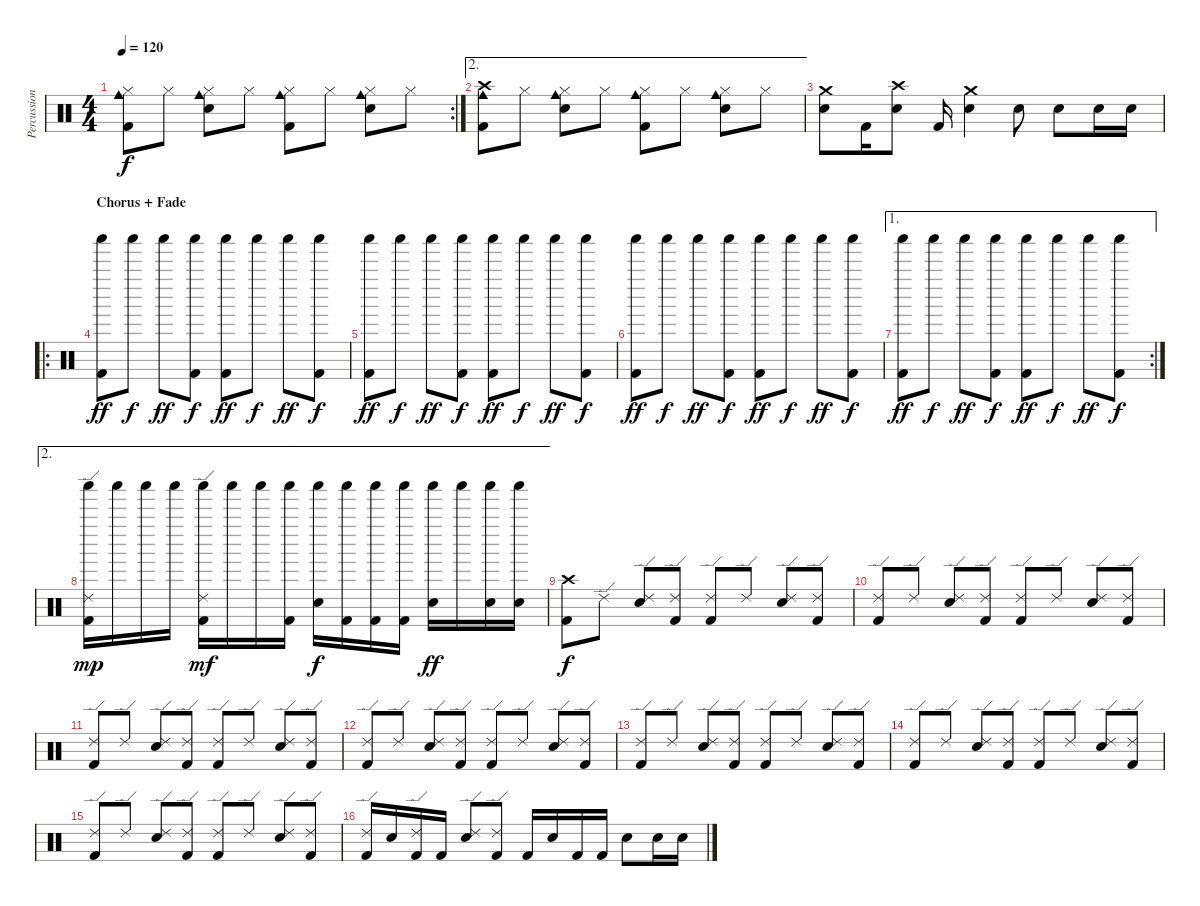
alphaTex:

\track ("Percussion" "Percussion") {instrument percussion}
\staff {score}
\articulation defaults
\rc 2
\ts (4 4)
\tempo 120
\clef neutral
\ks c
("Hi-Hat (closed)" "Cowbell medium (hit)" "Kick (hit) 2").8{dy f} "Hi-Hat (closed)".8 ("Hi-Hat (closed)" "Cowbell medium (hit)" "Snare (hit) 2").8 "Hi-Hat (closed)".8 ("Hi-Hat (closed)" "Cowbell medium (hit)" "Kick (hit) 2").8 "Hi-Hat (closed)".8 ("Hi-Hat (closed)" "Cowbell medium (hit)" "Snare (hit) 2").8 "Hi-Hat (closed)".8 |
\ae 2
("Crash high (hit)" "Cowbell medium (hit)" "Kick (hit) 2").8 "Hi-Hat (closed)".8 ("Hi-Hat (closed)" "Cowbell medium (hit)" "Snare (hit) 2").8 "Hi-Hat (closed)".8 ("Hi-Hat (closed)" "Cowbell medium (hit)" "Kick (hit) 2").8 "Hi-Hat (closed)".8 ("Hi-Hat (closed)" "Cowbell medium (hit)" "Snare (hit) 2").8 "Hi-Hat (closed)".8 |
("Crash medium (hit)" "Snare (hit) 2").8 "Kick (hit) 2".16 ("Crash high (hit)" "Snare (hit) 2").8 "Kick (hit) 2".16 ("Crash medium (hit)" "Snare (hit) 2").4 "Snare (hit) 2".8 "Snare (hit) 2".8 "Snare (hit) 2".16 "Snare (hit) 2".16 |
\ro
\section ("" "Chorus + Fade")
("Shaker (hit)" "Kick (hit) 2").8{dy ff} "Shaker (hit)".8{dy f} "Shaker (hit)".8{dy ff} ("Shaker (hit)" "Kick (hit) 2").8{dy f} ("Shaker (hit)" "Kick (hit) 2").8{dy ff} "Shaker (hit)".8{dy f} "Shaker (hit)".8{dy ff} ("Shaker (hit)" "Kick (hit) 2").8{dy f} |
("Shaker (hit)" "Kick (hit) 2").8{dy ff} "Shaker (hit)".8{dy f} "Shaker (hit)".8{dy ff} ("Shaker (hit)" "Kick (hit) 2").8{dy f} ("Shaker (hit)" "Kick (hit) 2").8{dy ff} "Shaker (hit)".8{dy f} "Shaker (hit)".8{dy ff} ("Shaker (hit)" "Kick (hit) 2").8{dy f} |
("Shaker (hit)" "Kick (hit) 2").8{dy ff} "Shaker (hit)".8{dy f} "Shaker (hit)".8{dy ff} ("Shaker (hit)" "Kick (hit) 2").8{dy f} ("Shaker (hit)" "Kick (hit) 2").8{dy ff} "Shaker (hit)".8{dy f} "Shaker (hit)".8{dy ff} ("Shaker (hit)" "Kick (hit) 2").8{dy f} |
\ae 1
\rc 2
("Shaker (hit)" "Kick (hit) 2").8{dy ff} "Shaker (hit)".8{dy f} "Shaker (hit)".8{dy ff} ("Shaker (hit)" "Kick (hit) 2").8{dy f} ("Shaker (hit)" "Kick (hit) 2").8{dy ff} "Shaker (hit)".8{dy f} "Shaker (hit)".8{dy ff} ("Shaker (hit)" "Kick (hit) 2").8{dy f} |
\ae 2
("Ride (edge) 2" "Shaker (hit)" "Kick (hit) 2").16{dy mp} "Shaker (hit)".16 "Shaker (hit)".16 "Shaker (hit)".16 ("Ride (edge) 2" "Shaker (hit)" "Kick (hit) 2").16{dy mf} "Shaker (hit)".16 "Shaker (hit)".16 ("Shaker (hit)" "Kick (hit) 2").16 ("Shaker (hit)" "Snare (hit) 2").16{dy f} ("Shaker (hit)" "Kick (hit) 2").16 ("Shaker (hit)" "Kick (hit) 2").16 ("Shaker (hit)" "Kick (hit) 2").16 ("Shaker (hit)" "Snare (hit) 2").16{dy ff} "Shaker (hit)".16 ("Shaker (hit)" "Snare (hit) 2").16 ("Shaker (hit)" "Snare (hit) 2").16 |
("Crash high (hit)" "Kick (hit) 2").8{dy f} "Ride (edge) 2".8 ("Ride (edge) 2" "Snare (hit) 2").8 ("Ride (edge) 2" "Kick (hit) 2").8 ("Ride (edge) 2" "Kick (hit) 2").8 "Ride (edge) 2".8 ("Ride (edge) 2" "Snare (hit) 2").8 ("Ride (edge) 2" "Kick (hit) 2").8 |
("Ride (edge) 2" "Kick (hit) 2").8 "Ride (edge) 2".8 ("Ride (edge) 2" "Snare (hit) 2").8 ("Ride (edge) 2" "Kick (hit) 2").8 ("Ride (edge) 2" "Kick (hit) 2").8 "Ride (edge) 2".8 ("Ride (edge) 2" "Snare (hit) 2").8 ("Ride (edge) 2" "Kick (hit) 2").8 |
("Ride (edge) 2" "Kick (hit) 2").8 "Ride (edge) 2".8 ("Ride (edge) 2" "Snare (hit) 2").8 ("Ride (edge) 2" "Kick (hit) 2").8 ("Ride (edge) 2" "Kick (hit) 2").8 "Ride (edge) 2".8 ("Ride (edge) 2" "Snare (hit) 2").8 ("Ride (edge) 2" "Kick (hit) 2").8 |
("Ride (edge) 2" "Kick (hit) 2").8 "Ride (edge) 2".8 ("Ride (edge) 2" "Snare (hit) 2").8 ("Ride (edge) 2" "Kick (hit) 2").8 ("Ride (edge) 2" "Kick (hit) 2").8 "Ride (edge) 2".8 ("Ride (edge) 2" "Snare (hit) 2").8 ("Ride (edge) 2" "Kick (hit) 2").8 |
("Ride (edge) 2" "Kick (hit) 2").8 "Ride (edge) 2".8 ("Ride (edge) 2" "Snare (hit) 2").8 ("Ride (edge) 2" "Kick (hit) 2").8 ("Ride (edge) 2" "Kick (hit) 2").8 "Ride (edge) 2".8 ("Ride (edge) 2" "Snare (hit) 2").8 ("Ride (edge) 2" "Kick (hit) 2").8 |
("Ride (edge) 2" "Kick (hit) 2").8 "Ride (edge) 2".8 ("Ride (edge) 2" "Snare (hit) 2").8 ("Ride (edge) 2" "Kick (hit) 2").8 ("Ride (edge) 2" "Kick (hit) 2").8 "Ride (edge) 2".8 ("Ride (edge) 2" "Snare (hit) 2").8 ("Ride (edge) 2" "Kick (hit) 2").8 |
("Ride (edge) 2" "Kick (hit) 2").8 "Ride (edge) 2".8 ("Ride (edge) 2" "Snare (hit) 2").8 ("Ride (edge) 2" "Kick (hit) 2").8 ("Ride (edge) 2" "Kick (hit) 2").8 "Ride (edge) 2".8 ("Ride (edge) 2" "Snare (hit) 2").8 ("Ride (edge) 2" "Kick (hit) 2").8 |
("Ride (edge) 2" "Kick (hit) 2").16 "Snare (hit) 2".16 ("Ride (edge) 2" "Kick (hit) 2").16 "Kick (hit) 2".16 ("Ride (edge) 2" "Snare (hit) 2").8 ("Ride (edge) 2" "Kick (hit) 2").8 "Kick (hit) 2".16 "Snare (hit) 2".16 "Kick (hit) 2".16 "Kick (hit) 2".16 "Snare (hit) 2".8 "Snare (hit) 2".16 "Snare (hit) 2".16
